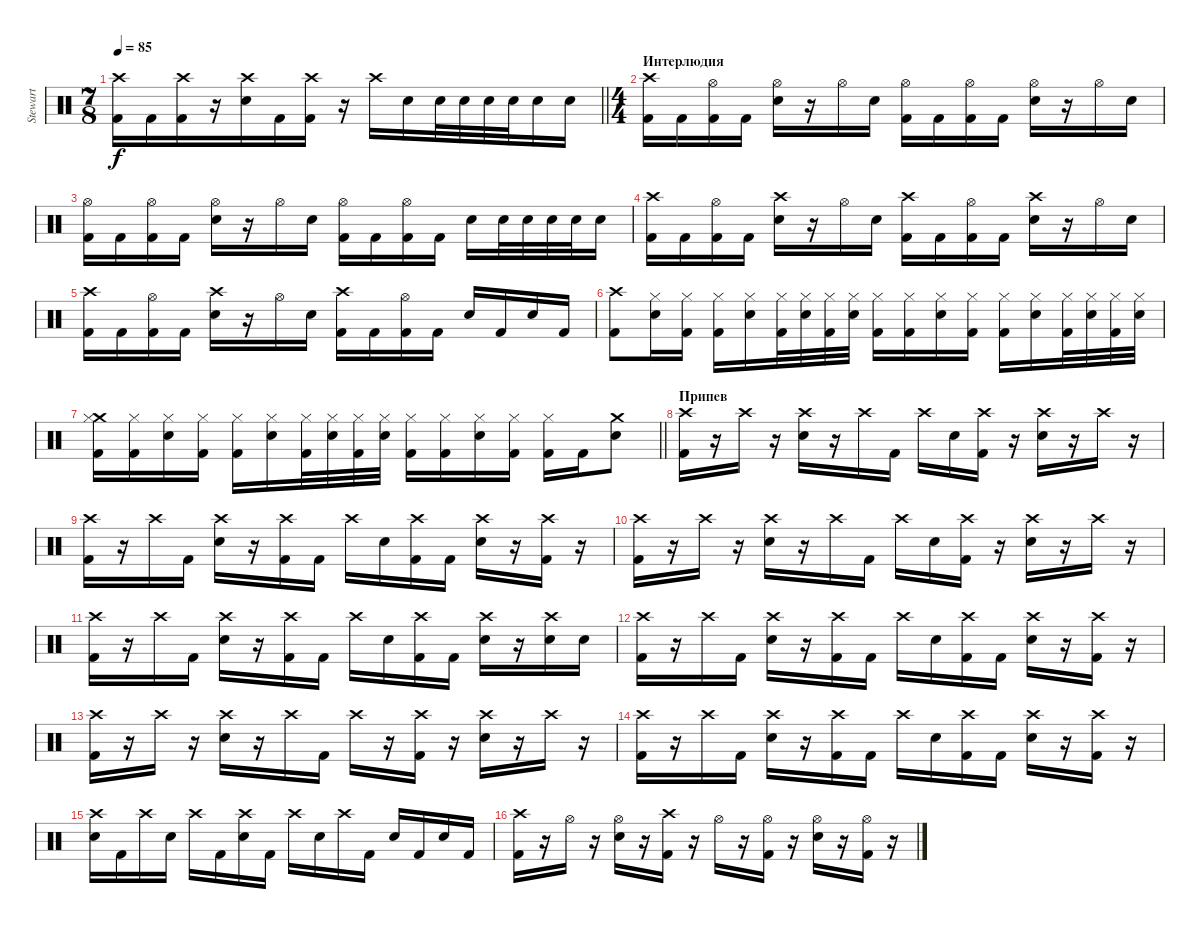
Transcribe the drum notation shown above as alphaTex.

\track ("Stewart" "Stewart") {instrument percussion}
\staff {score}
\articulation defaults
\ts (7 8)
\tempo 85
\clef neutral
\barLineRight lightlight
\ks c
("Crash high (hit)" "Kick (hit) 2").16{dy f} "Kick (hit) 2".16 ("Crash high (hit)" "Kick (hit) 2").16 r.16 ("Crash high (hit)" "Electric Snare (hit)").16 "Kick (hit) 2".16 ("Crash high (hit)" "Kick (hit) 2").16 r.16 "Crash high (hit)".16 "Electric Snare (hit)".16 "Electric Snare (hit)".32 "Electric Snare (hit)".32 "Electric Snare (hit)".32 "Electric Snare (hit)".32 "Electric Snare (hit)".16 "Electric Snare (hit)".16 |
\ts (4 4)
\section ("" "Интерлюдия")
("Crash high (hit)" "Kick (hit) 2").16 "Kick (hit) 2".16 ("Hi-Hat (open)" "Kick (hit) 2").16 "Kick (hit) 2".16 ("Hi-Hat (open)" "Electric Snare (hit)").16 r.16 "Hi-Hat (open)".16 "Electric Snare (hit)".16 ("Hi-Hat (open)" "Kick (hit) 2").16 "Kick (hit) 2".16 ("Hi-Hat (open)" "Kick (hit) 2").16 "Kick (hit) 2".16 ("Hi-Hat (open)" "Electric Snare (hit)").16 r.16 "Hi-Hat (open)".16 "Electric Snare (hit)".16 |
("Hi-Hat (open)" "Kick (hit) 2").16 "Kick (hit) 2".16 ("Hi-Hat (open)" "Kick (hit) 2").16 "Kick (hit) 2".16 ("Hi-Hat (open)" "Electric Snare (hit)").16 r.16 "Hi-Hat (open)".16 "Electric Snare (hit)".16 ("Hi-Hat (open)" "Kick (hit) 2").16 "Kick (hit) 2".16 ("Hi-Hat (open)" "Kick (hit) 2").16 "Kick (hit) 2".16 "Electric Snare (hit)".16 "Electric Snare (hit)".32 "Electric Snare (hit)".32 "Electric Snare (hit)".32 "Electric Snare (hit)".32 "Electric Snare (hit)".16 |
("Crash high (hit)" "Kick (hit) 2").16 "Kick (hit) 2".16 ("Hi-Hat (open)" "Kick (hit) 2").16 "Kick (hit) 2".16 ("Crash high (hit)" "Electric Snare (hit)").16 r.16 "Hi-Hat (open)".16 "Electric Snare (hit)".16 ("Crash high (hit)" "Kick (hit) 2").16 "Kick (hit) 2".16 ("Hi-Hat (open)" "Kick (hit) 2").16 "Kick (hit) 2".16 ("Crash high (hit)" "Electric Snare (hit)").16 r.16 "Hi-Hat (open)".16 "Electric Snare (hit)".16 |
("Crash high (hit)" "Kick (hit) 2").16 "Kick (hit) 2".16 ("Hi-Hat (open)" "Kick (hit) 2").16 "Kick (hit) 2".16 ("Crash high (hit)" "Electric Snare (hit)").16 r.16 "Hi-Hat (open)".16 "Electric Snare (hit)".16 ("Crash high (hit)" "Kick (hit) 2").16 "Kick (hit) 2".16 ("Hi-Hat (open)" "Kick (hit) 2").16 "Kick (hit) 2".16 "Electric Snare (hit)".16 "Kick (hit) 2".16 "Electric Snare (hit)".16 "Kick (hit) 2".16 |
("Crash high (hit)" "Kick (hit) 2").8 ("Hi-Hat (closed)" "Snare (hit) 2").16 ("Hi-Hat (closed)" "Kick (hit) 2").16 ("Hi-Hat (closed)" "Kick (hit) 2").16 ("Hi-Hat (closed)" "Snare (hit) 2").16 ("Hi-Hat (closed)" "Kick (hit) 2").32 ("Hi-Hat (closed)" "Snare (hit) 2").32 ("Hi-Hat (closed)" "Kick (hit) 2").32 ("Hi-Hat (closed)" "Snare (hit) 2").32 ("Hi-Hat (closed)" "Kick (hit) 2").16 ("Hi-Hat (closed)" "Kick (hit) 2").16 ("Hi-Hat (closed)" "Snare (hit) 2").16 ("Hi-Hat (closed)" "Kick (hit) 2").16 ("Hi-Hat (closed)" "Kick (hit) 2").16 ("Hi-Hat (closed)" "Snare (hit) 2").16 ("Hi-Hat (closed)" "Kick (hit) 2").32 ("Hi-Hat (closed)" "Snare (hit) 2").32 ("Hi-Hat (closed)" "Kick (hit) 2").32 ("Hi-Hat (closed)" "Snare (hit) 2").32 |
\barLineRight lightlight
("Crash medium (hit)" "Hi-Hat (closed)" "Kick (hit) 2").16 ("Hi-Hat (closed)" "Kick (hit) 2").16 ("Hi-Hat (closed)" "Snare (hit) 2").16 ("Hi-Hat (closed)" "Kick (hit) 2").16 ("Hi-Hat (closed)" "Kick (hit) 2").16 ("Hi-Hat (closed)" "Snare (hit) 2").16 ("Hi-Hat (closed)" "Kick (hit) 2").32 ("Hi-Hat (closed)" "Snare (hit) 2").32 ("Hi-Hat (closed)" "Kick (hit) 2").32 ("Hi-Hat (closed)" "Snare (hit) 2").32 ("Hi-Hat (closed)" "Kick (hit) 2").16 ("Hi-Hat (closed)" "Kick (hit) 2").16 ("Hi-Hat (closed)" "Snare (hit) 2").16 ("Hi-Hat (closed)" "Kick (hit) 2").16 ("Hi-Hat (closed)" "Kick (hit) 2").16 "Kick (hit) 2".16 ("Crash medium (hit)" "Electric Snare (hit)").8 |
\section ("" "Припев")
("Crash high (hit)" "Kick (hit) 2").16 r.16 "Crash high (hit)".16 r.16 ("Crash high (hit)" "Electric Snare (hit)").16 r.16 "Crash high (hit)".16 "Kick (hit) 2".16 "Crash high (hit)".16 "Electric Snare (hit)".16 ("Crash high (hit)" "Kick (hit) 2").16 r.16 ("Crash high (hit)" "Electric Snare (hit)").16 r.16 "Crash high (hit)".16 r.16 |
("Crash high (hit)" "Kick (hit) 2").16 r.16 "Crash high (hit)".16 "Kick (hit) 2".16 ("Crash high (hit)" "Electric Snare (hit)").16 r.16 ("Crash high (hit)" "Kick (hit) 2").16 "Kick (hit) 2".16 "Crash high (hit)".16 "Electric Snare (hit)".16 ("Crash high (hit)" "Kick (hit) 2").16 "Kick (hit) 2".16 ("Crash high (hit)" "Electric Snare (hit)").16 r.16 ("Crash high (hit)" "Kick (hit) 2").16 r.16 |
("Crash high (hit)" "Kick (hit) 2").16 r.16 "Crash high (hit)".16 r.16 ("Crash high (hit)" "Electric Snare (hit)").16 r.16 "Crash high (hit)".16 "Kick (hit) 2".16 "Crash high (hit)".16 "Electric Snare (hit)".16 ("Crash high (hit)" "Kick (hit) 2").16 r.16 ("Crash high (hit)" "Electric Snare (hit)").16 r.16 "Crash high (hit)".16 r.16 |
("Crash high (hit)" "Kick (hit) 2").16 r.16 "Crash high (hit)".16 "Kick (hit) 2".16 ("Crash high (hit)" "Electric Snare (hit)").16 r.16 ("Crash high (hit)" "Kick (hit) 2").16 "Kick (hit) 2".16 "Crash high (hit)".16 "Electric Snare (hit)".16 ("Crash high (hit)" "Kick (hit) 2").16 "Kick (hit) 2".16 ("Crash high (hit)" "Electric Snare (hit)").16 r.16 ("Crash high (hit)" "Electric Snare (hit)").16 "Electric Snare (hit)".16 |
("Crash high (hit)" "Kick (hit) 2").16 r.16 "Crash high (hit)".16 "Kick (hit) 2".16 ("Crash high (hit)" "Electric Snare (hit)").16 r.16 ("Crash high (hit)" "Kick (hit) 2").16 "Kick (hit) 2".16 "Crash high (hit)".16 "Electric Snare (hit)".16 ("Crash high (hit)" "Kick (hit) 2").16 "Kick (hit) 2".16 ("Crash high (hit)" "Electric Snare (hit)").16 r.16 ("Crash high (hit)" "Kick (hit) 2").16 r.16 |
("Crash high (hit)" "Kick (hit) 2").16 r.16 "Crash high (hit)".16 r.16 ("Crash high (hit)" "Electric Snare (hit)").16 r.16 "Crash high (hit)".16 "Kick (hit) 2".16 "Crash high (hit)".16 r.16 ("Crash high (hit)" "Kick (hit) 2").16 r.16 ("Crash high (hit)" "Electric Snare (hit)").16 r.16 "Crash high (hit)".16 r.16 |
("Crash high (hit)" "Kick (hit) 2").16 r.16 "Crash high (hit)".16 "Kick (hit) 2".16 ("Crash high (hit)" "Electric Snare (hit)").16 r.16 ("Crash high (hit)" "Kick (hit) 2").16 "Kick (hit) 2".16 "Crash high (hit)".16 "Electric Snare (hit)".16 ("Crash high (hit)" "Kick (hit) 2").16 "Kick (hit) 2".16 ("Crash high (hit)" "Electric Snare (hit)").16 r.16 ("Crash high (hit)" "Kick (hit) 2").16 r.16 |
("Crash high (hit)" "Electric Snare (hit)").16 "Kick (hit) 2".16 "Crash high (hit)".16 "Electric Snare (hit)".16 "Crash high (hit)".16 "Kick (hit) 2".16 ("Crash high (hit)" "Electric Snare (hit)").16 "Kick (hit) 2".16 "Crash high (hit)".16 "Electric Snare (hit)".16 "Crash high (hit)".16 "Kick (hit) 2".16 "Electric Snare (hit)".16 "Kick (hit) 2".16 "Electric Snare (hit)".16 "Kick (hit) 2".16 |
("Crash high (hit)" "Kick (hit) 2").16 r.16 "Hi-Hat (open)".16 r.16 ("Hi-Hat (open)" "Electric Snare (hit)").16 r.16 ("Crash high (hit)" "Kick (hit) 2").16 r.16 "Hi-Hat (open)".16 r.16 ("Hi-Hat (open)" "Kick (hit) 2").16 r.16 ("Hi-Hat (open)" "Electric Snare (hit)").16 r.16 ("Hi-Hat (open)" "Kick (hit) 2").16 r.16
